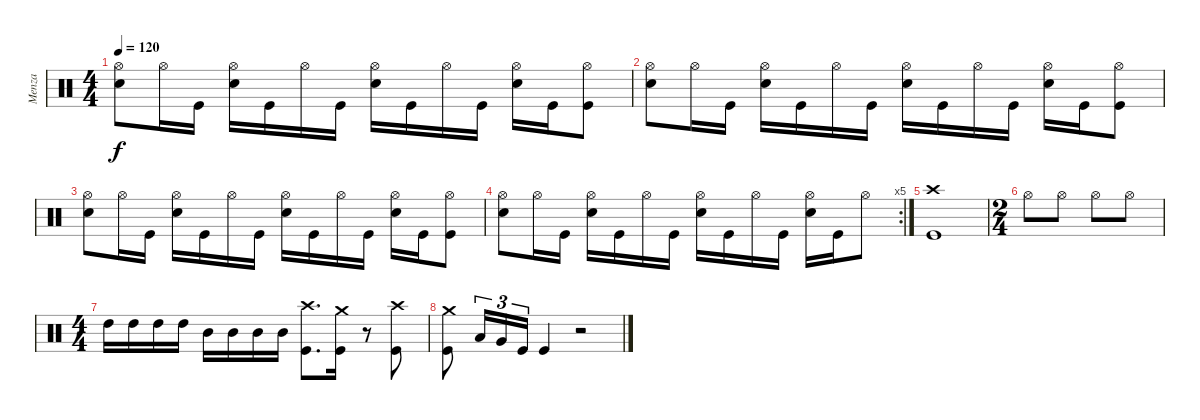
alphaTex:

\track ("Menza" "Menza") {instrument percussion}
\staff {score}
\articulation defaults
\ts (4 4)
\tempo 120
\clef neutral
\ks c
("Hi-Hat (open)" "Snare (hit) 2").8{dy f} "Hi-Hat (open)".16 "Kick (hit)".16 ("Hi-Hat (open)" "Snare (hit) 2").16 "Kick (hit)".16 "Hi-Hat (open)".16 "Kick (hit)".16 ("Hi-Hat (open)" "Snare (hit) 2").16 "Kick (hit)".16 "Hi-Hat (open)".16 "Kick (hit)".16 ("Hi-Hat (open)" "Snare (hit) 2").16 "Kick (hit)".16 ("Hi-Hat (open)" "Kick (hit)").8 |
("Hi-Hat (open)" "Snare (hit) 2").8 "Hi-Hat (open)".16 "Kick (hit)".16 ("Hi-Hat (open)" "Snare (hit) 2").16 "Kick (hit)".16 "Hi-Hat (open)".16 "Kick (hit)".16 ("Hi-Hat (open)" "Snare (hit) 2").16 "Kick (hit)".16 "Hi-Hat (open)".16 "Kick (hit)".16 ("Hi-Hat (open)" "Snare (hit) 2").16 "Kick (hit)".16 ("Hi-Hat (open)" "Kick (hit)").8 |
("Hi-Hat (open)" "Snare (hit) 2").8 "Hi-Hat (open)".16 "Kick (hit)".16 ("Hi-Hat (open)" "Snare (hit) 2").16 "Kick (hit)".16 "Hi-Hat (open)".16 "Kick (hit)".16 ("Hi-Hat (open)" "Snare (hit) 2").16 "Kick (hit)".16 "Hi-Hat (open)".16 "Kick (hit)".16 ("Hi-Hat (open)" "Snare (hit) 2").16 "Kick (hit)".16 ("Hi-Hat (open)" "Kick (hit)").8 |
\rc 5
("Hi-Hat (open)" "Snare (hit) 2").8 "Hi-Hat (open)".16 "Kick (hit)".16 ("Hi-Hat (open)" "Snare (hit) 2").16 "Kick (hit)".16 "Hi-Hat (open)".16 "Kick (hit)".16 ("Hi-Hat (open)" "Snare (hit) 2").16 "Kick (hit)".16 "Hi-Hat (open)".16 "Kick (hit)".16 ("Hi-Hat (open)" "Snare (hit) 2").16 "Kick (hit)".16 "Hi-Hat (open)".8 |
("Crash high (hit)" "Kick (hit)").1 |
\ts (2 4)
"Hi-Hat (open)".8 "Hi-Hat (open)".8 "Hi-Hat (open)".8 "Hi-Hat (open)".8 |
\ts (4 4)
"High Tom (hit)".16 "High Tom (hit)".16 "High Tom (hit)".16 "High Tom (hit)".16 "Mid Tom (hit)".16 "Mid Tom (hit)".16 "Mid Tom (hit)".16 "Mid Tom (hit)".16 ("Crash high (hit)" "Kick (hit)").8{d} ("Crash medium (hit)" "Kick (hit)").16 r.8 ("Crash high (hit)" "Kick (hit)").8 |
("Crash medium (hit)" "Kick (hit)").8 "Low Floor Tom (hit)".16{tu (3 2)} "Very Low Tom (hit)".16{tu (3 2)} "Kick (hit)".16{tu (3 2)} "Kick (hit)".4 r.2
